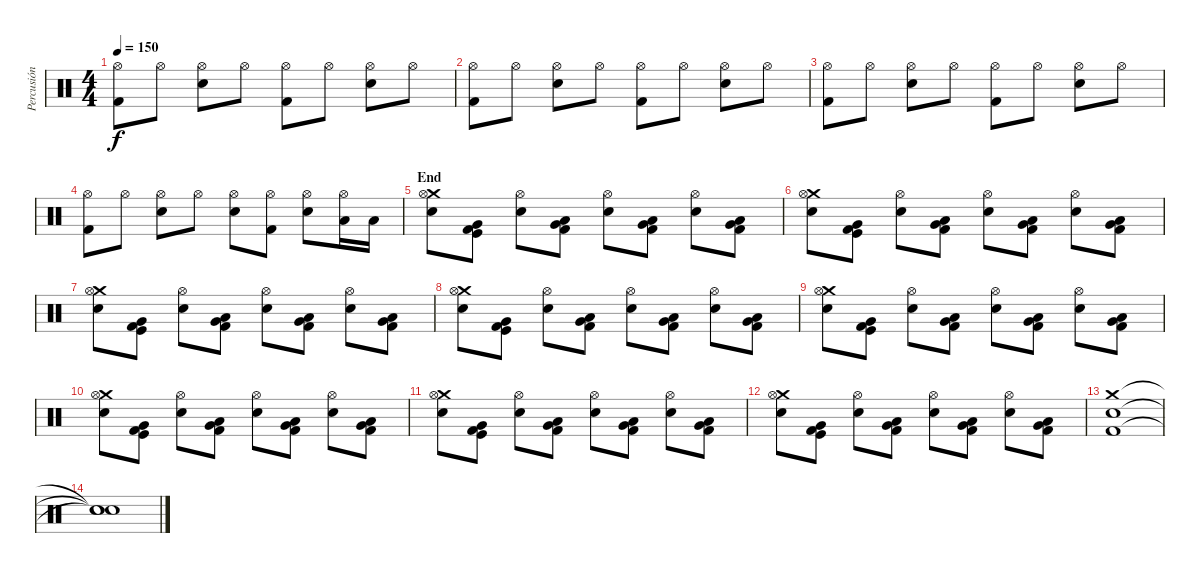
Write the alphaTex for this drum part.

\track ("Percusión" "Percusión") {instrument percussion}
\staff {score}
\articulation defaults
\ts (4 4)
\tempo 150
\clef neutral
\ks c
("Kick (hit) 2" "Hi-Hat (open)").8{dy f} "Hi-Hat (open)".8 ("Snare (hit) 2" "Hi-Hat (open)").8 "Hi-Hat (open)".8 ("Kick (hit) 2" "Hi-Hat (open)").8 "Hi-Hat (open)".8 ("Snare (hit) 2" "Hi-Hat (open)").8 "Hi-Hat (open)".8 |
("Kick (hit) 2" "Hi-Hat (open)").8 "Hi-Hat (open)".8 ("Snare (hit) 2" "Hi-Hat (open)").8 "Hi-Hat (open)".8 ("Kick (hit) 2" "Hi-Hat (open)").8 "Hi-Hat (open)".8 ("Snare (hit) 2" "Hi-Hat (open)").8 "Hi-Hat (open)".8 |
("Kick (hit) 2" "Hi-Hat (open)").8 "Hi-Hat (open)".8 ("Snare (hit) 2" "Hi-Hat (open)").8 "Hi-Hat (open)".8 ("Kick (hit) 2" "Hi-Hat (open)").8 "Hi-Hat (open)".8 ("Snare (hit) 2" "Hi-Hat (open)").8 "Hi-Hat (open)".8 |
("Kick (hit) 2" "Hi-Hat (open)").8 "Hi-Hat (open)".8 ("Snare (hit) 2" "Hi-Hat (open)").8 "Hi-Hat (open)".8 ("Snare (hit) 2" "Hi-Hat (open)").8 ("Kick (hit) 2" "Hi-Hat (open)").8 ("Snare (hit) 2" "Hi-Hat (open)").8 ("Low Tom (hit)" "Hi-Hat (open)").16 "Low Tom (hit)".16 |
\section ("" "End")
("Crash medium (hit)" "Snare (hit) 2" "Hi-Hat (open)").8 ("Kick (hit) 2" "Very Low Tom (hit)" "Kick (hit)").8 ("Snare (hit) 2" "Hi-Hat (open)").8 ("Kick (hit) 2" "Very Low Tom (hit)" "Low Tom (hit)").8 ("Snare (hit) 2" "Hi-Hat (open)").8 ("Kick (hit) 2" "Very Low Tom (hit)" "Low Tom (hit)").8 ("Snare (hit) 2" "Hi-Hat (open)").8 ("Kick (hit) 2" "Very Low Tom (hit)" "Low Tom (hit)").8 |
("Crash medium (hit)" "Snare (hit) 2" "Hi-Hat (open)").8 ("Kick (hit) 2" "Very Low Tom (hit)" "Kick (hit)").8 ("Snare (hit) 2" "Hi-Hat (open)").8 ("Kick (hit) 2" "Very Low Tom (hit)" "Low Tom (hit)").8 ("Snare (hit) 2" "Hi-Hat (open)").8 ("Kick (hit) 2" "Very Low Tom (hit)" "Low Tom (hit)").8 ("Snare (hit) 2" "Hi-Hat (open)").8 ("Kick (hit) 2" "Very Low Tom (hit)" "Low Tom (hit)").8 |
("Crash medium (hit)" "Snare (hit) 2" "Hi-Hat (open)").8 ("Kick (hit) 2" "Very Low Tom (hit)" "Kick (hit)").8 ("Snare (hit) 2" "Hi-Hat (open)").8 ("Kick (hit) 2" "Very Low Tom (hit)" "Low Tom (hit)").8 ("Snare (hit) 2" "Hi-Hat (open)").8 ("Kick (hit) 2" "Very Low Tom (hit)" "Low Tom (hit)").8 ("Snare (hit) 2" "Hi-Hat (open)").8 ("Kick (hit) 2" "Very Low Tom (hit)" "Low Tom (hit)").8 |
("Crash medium (hit)" "Snare (hit) 2" "Hi-Hat (open)").8 ("Kick (hit) 2" "Very Low Tom (hit)" "Kick (hit)").8 ("Snare (hit) 2" "Hi-Hat (open)").8 ("Kick (hit) 2" "Very Low Tom (hit)" "Low Tom (hit)").8 ("Snare (hit) 2" "Hi-Hat (open)").8 ("Kick (hit) 2" "Very Low Tom (hit)" "Low Tom (hit)").8 ("Snare (hit) 2" "Hi-Hat (open)").8 ("Kick (hit) 2" "Very Low Tom (hit)" "Low Tom (hit)").8 |
("Crash medium (hit)" "Snare (hit) 2" "Hi-Hat (open)").8 ("Kick (hit) 2" "Very Low Tom (hit)" "Kick (hit)").8 ("Snare (hit) 2" "Hi-Hat (open)").8 ("Kick (hit) 2" "Very Low Tom (hit)" "Low Tom (hit)").8 ("Snare (hit) 2" "Hi-Hat (open)").8 ("Kick (hit) 2" "Very Low Tom (hit)" "Low Tom (hit)").8 ("Snare (hit) 2" "Hi-Hat (open)").8 ("Kick (hit) 2" "Very Low Tom (hit)" "Low Tom (hit)").8 |
("Crash medium (hit)" "Snare (hit) 2" "Hi-Hat (open)").8 ("Kick (hit) 2" "Very Low Tom (hit)" "Kick (hit)").8 ("Snare (hit) 2" "Hi-Hat (open)").8 ("Kick (hit) 2" "Very Low Tom (hit)" "Low Tom (hit)").8 ("Snare (hit) 2" "Hi-Hat (open)").8 ("Kick (hit) 2" "Very Low Tom (hit)" "Low Tom (hit)").8 ("Snare (hit) 2" "Hi-Hat (open)").8 ("Kick (hit) 2" "Very Low Tom (hit)" "Low Tom (hit)").8 |
("Crash medium (hit)" "Snare (hit) 2" "Hi-Hat (open)").8 ("Kick (hit) 2" "Very Low Tom (hit)" "Kick (hit)").8 ("Snare (hit) 2" "Hi-Hat (open)").8 ("Kick (hit) 2" "Very Low Tom (hit)" "Low Tom (hit)").8 ("Snare (hit) 2" "Hi-Hat (open)").8 ("Kick (hit) 2" "Very Low Tom (hit)" "Low Tom (hit)").8 ("Snare (hit) 2" "Hi-Hat (open)").8 ("Kick (hit) 2" "Very Low Tom (hit)" "Low Tom (hit)").8 |
("Crash medium (hit)" "Snare (hit) 2" "Hi-Hat (open)").8 ("Kick (hit) 2" "Very Low Tom (hit)" "Kick (hit)").8 ("Snare (hit) 2" "Hi-Hat (open)").8 ("Kick (hit) 2" "Very Low Tom (hit)" "Low Tom (hit)").8 ("Snare (hit) 2" "Hi-Hat (open)").8 ("Kick (hit) 2" "Very Low Tom (hit)" "Low Tom (hit)").8 ("Snare (hit) 2" "Hi-Hat (open)").8 ("Kick (hit) 2" "Very Low Tom (hit)" "Low Tom (hit)").8 |
("Crash medium (hit)" "Kick (hit) 2" "Snare (hit) 2").1 |
("Snare (hit)"{t} "Snare (hit)"{t} "Snare (hit)"{t}).1
